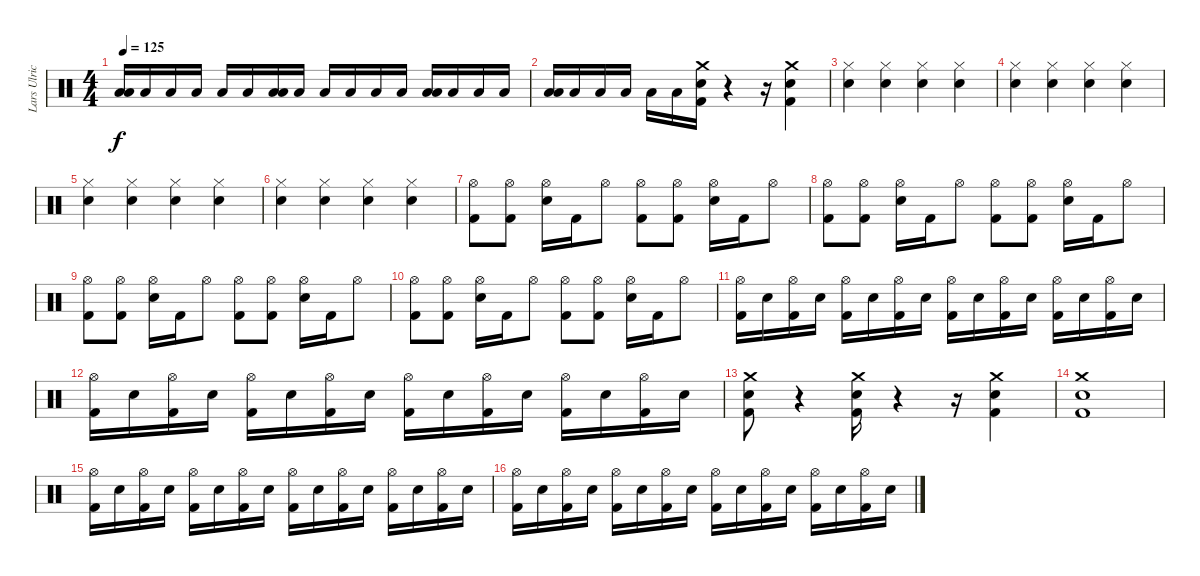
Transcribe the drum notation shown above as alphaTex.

\track ("Lars Ulrich" "Lars Ulric") {instrument percussion}
\staff {score}
\articulation defaults
\ts (4 4)
\tempo 125
\clef neutral
\ks c
("Low Tom (hit)" "Low Floor Tom (hit)").16{dy f} "Low Floor Tom (hit)".16 "Low Floor Tom (hit)".16 "Low Floor Tom (hit)".16 "Low Floor Tom (hit)".16 "Low Floor Tom (hit)".16 ("Low Tom (hit)" "Low Floor Tom (hit)").16 "Low Floor Tom (hit)".16 "Low Floor Tom (hit)".16 "Low Floor Tom (hit)".16 "Low Floor Tom (hit)".16 "Low Floor Tom (hit)".16 ("Low Tom (hit)" "Low Floor Tom (hit)").16 "Low Floor Tom (hit)".16 "Low Floor Tom (hit)".16 "Low Floor Tom (hit)".16 |
("Low Tom (hit)" "Low Floor Tom (hit)").16 "Low Floor Tom (hit)".16 "Low Floor Tom (hit)".16 "Low Floor Tom (hit)".16 "Low Floor Tom (hit)".16 "Low Floor Tom (hit)".16 ("Crash medium (hit)" "Electric Snare (hit)" "Kick (hit) 2").16 r.4 r.16 ("Crash medium (hit)" "Electric Snare (hit)" "Kick (hit) 2").4 |
("Hi-Hat (closed)" "Electric Snare (hit)").4 ("Hi-Hat (closed)" "Electric Snare (hit)").4 ("Hi-Hat (closed)" "Electric Snare (hit)").4 ("Hi-Hat (closed)" "Electric Snare (hit)").4 |
("Hi-Hat (closed)" "Electric Snare (hit)").4 ("Hi-Hat (closed)" "Electric Snare (hit)").4 ("Hi-Hat (closed)" "Electric Snare (hit)").4 ("Hi-Hat (closed)" "Electric Snare (hit)").4 |
("Hi-Hat (closed)" "Electric Snare (hit)").4 ("Hi-Hat (closed)" "Electric Snare (hit)").4 ("Hi-Hat (closed)" "Electric Snare (hit)").4 ("Hi-Hat (closed)" "Electric Snare (hit)").4 |
("Hi-Hat (closed)" "Electric Snare (hit)").4 ("Hi-Hat (closed)" "Electric Snare (hit)").4 ("Hi-Hat (closed)" "Electric Snare (hit)").4 ("Hi-Hat (closed)" "Electric Snare (hit)").4 |
("Hi-Hat (open)" "Kick (hit) 2").8 ("Hi-Hat (open)" "Kick (hit) 2").8 ("Hi-Hat (open)" "Electric Snare (hit)").16 "Kick (hit) 2".16 "Hi-Hat (open)".8 ("Hi-Hat (open)" "Kick (hit) 2").8 ("Hi-Hat (open)" "Kick (hit) 2").8 ("Hi-Hat (open)" "Electric Snare (hit)").16 "Kick (hit) 2".16 "Hi-Hat (open)".8 |
("Hi-Hat (open)" "Kick (hit) 2").8 ("Hi-Hat (open)" "Kick (hit) 2").8 ("Hi-Hat (open)" "Electric Snare (hit)").16 "Kick (hit) 2".16 "Hi-Hat (open)".8 ("Hi-Hat (open)" "Kick (hit) 2").8 ("Hi-Hat (open)" "Kick (hit) 2").8 ("Hi-Hat (open)" "Electric Snare (hit)").16 "Kick (hit) 2".16 "Hi-Hat (open)".8 |
("Hi-Hat (open)" "Kick (hit) 2").8 ("Hi-Hat (open)" "Kick (hit) 2").8 ("Hi-Hat (open)" "Electric Snare (hit)").16 "Kick (hit) 2".16 "Hi-Hat (open)".8 ("Hi-Hat (open)" "Kick (hit) 2").8 ("Hi-Hat (open)" "Kick (hit) 2").8 ("Hi-Hat (open)" "Electric Snare (hit)").16 "Kick (hit) 2".16 "Hi-Hat (open)".8 |
("Hi-Hat (open)" "Kick (hit) 2").8 ("Hi-Hat (open)" "Kick (hit) 2").8 ("Hi-Hat (open)" "Electric Snare (hit)").16 "Kick (hit) 2".16 "Hi-Hat (open)".8 ("Hi-Hat (open)" "Kick (hit) 2").8 ("Hi-Hat (open)" "Kick (hit) 2").8 ("Hi-Hat (open)" "Electric Snare (hit)").16 "Kick (hit) 2".16 "Hi-Hat (open)".8 |
("Hi-Hat (open)" "Kick (hit) 2").16 "Electric Snare (hit)".16 ("Hi-Hat (open)" "Kick (hit) 2").16 "Electric Snare (hit)".16 ("Hi-Hat (open)" "Kick (hit) 2").16 "Electric Snare (hit)".16 ("Hi-Hat (open)" "Kick (hit) 2").16 "Electric Snare (hit)".16 ("Hi-Hat (open)" "Kick (hit) 2").16 "Electric Snare (hit)".16 ("Hi-Hat (open)" "Kick (hit) 2").16 "Electric Snare (hit)".16 ("Hi-Hat (open)" "Kick (hit) 2").16 "Electric Snare (hit)".16 ("Hi-Hat (open)" "Kick (hit) 2").16 "Electric Snare (hit)".16 |
("Hi-Hat (open)" "Kick (hit) 2").16 "Electric Snare (hit)".16 ("Hi-Hat (open)" "Kick (hit) 2").16 "Electric Snare (hit)".16 ("Hi-Hat (open)" "Kick (hit) 2").16 "Electric Snare (hit)".16 ("Hi-Hat (open)" "Kick (hit) 2").16 "Electric Snare (hit)".16 ("Hi-Hat (open)" "Kick (hit) 2").16 "Electric Snare (hit)".16 ("Hi-Hat (open)" "Kick (hit) 2").16 "Electric Snare (hit)".16 ("Hi-Hat (open)" "Kick (hit) 2").16 "Electric Snare (hit)".16 ("Hi-Hat (open)" "Kick (hit) 2").16 "Electric Snare (hit)".16 |
("Crash medium (hit)" "Electric Snare (hit)" "Kick (hit) 2").8 r.4 ("Crash medium (hit)" "Electric Snare (hit)" "Kick (hit) 2").16 r.4 r.16 ("Crash medium (hit)" "Electric Snare (hit)" "Kick (hit) 2").4 |
("Crash medium (hit)" "Electric Snare (hit)" "Kick (hit) 2").1 |
("Hi-Hat (open)" "Kick (hit) 2").16 "Electric Snare (hit)".16 ("Hi-Hat (open)" "Kick (hit) 2").16 "Electric Snare (hit)".16 ("Hi-Hat (open)" "Kick (hit) 2").16 "Electric Snare (hit)".16 ("Hi-Hat (open)" "Kick (hit) 2").16 "Electric Snare (hit)".16 ("Hi-Hat (open)" "Kick (hit) 2").16 "Electric Snare (hit)".16 ("Hi-Hat (open)" "Kick (hit) 2").16 "Electric Snare (hit)".16 ("Hi-Hat (open)" "Kick (hit) 2").16 "Electric Snare (hit)".16 ("Hi-Hat (open)" "Kick (hit) 2").16 "Electric Snare (hit)".16 |
("Hi-Hat (open)" "Kick (hit) 2").16 "Electric Snare (hit)".16 ("Hi-Hat (open)" "Kick (hit) 2").16 "Electric Snare (hit)".16 ("Hi-Hat (open)" "Kick (hit) 2").16 "Electric Snare (hit)".16 ("Hi-Hat (open)" "Kick (hit) 2").16 "Electric Snare (hit)".16 ("Hi-Hat (open)" "Kick (hit) 2").16 "Electric Snare (hit)".16 ("Hi-Hat (open)" "Kick (hit) 2").16 "Electric Snare (hit)".16 ("Hi-Hat (open)" "Kick (hit) 2").16 "Electric Snare (hit)".16 ("Hi-Hat (open)" "Kick (hit) 2").16 "Electric Snare (hit)".16
